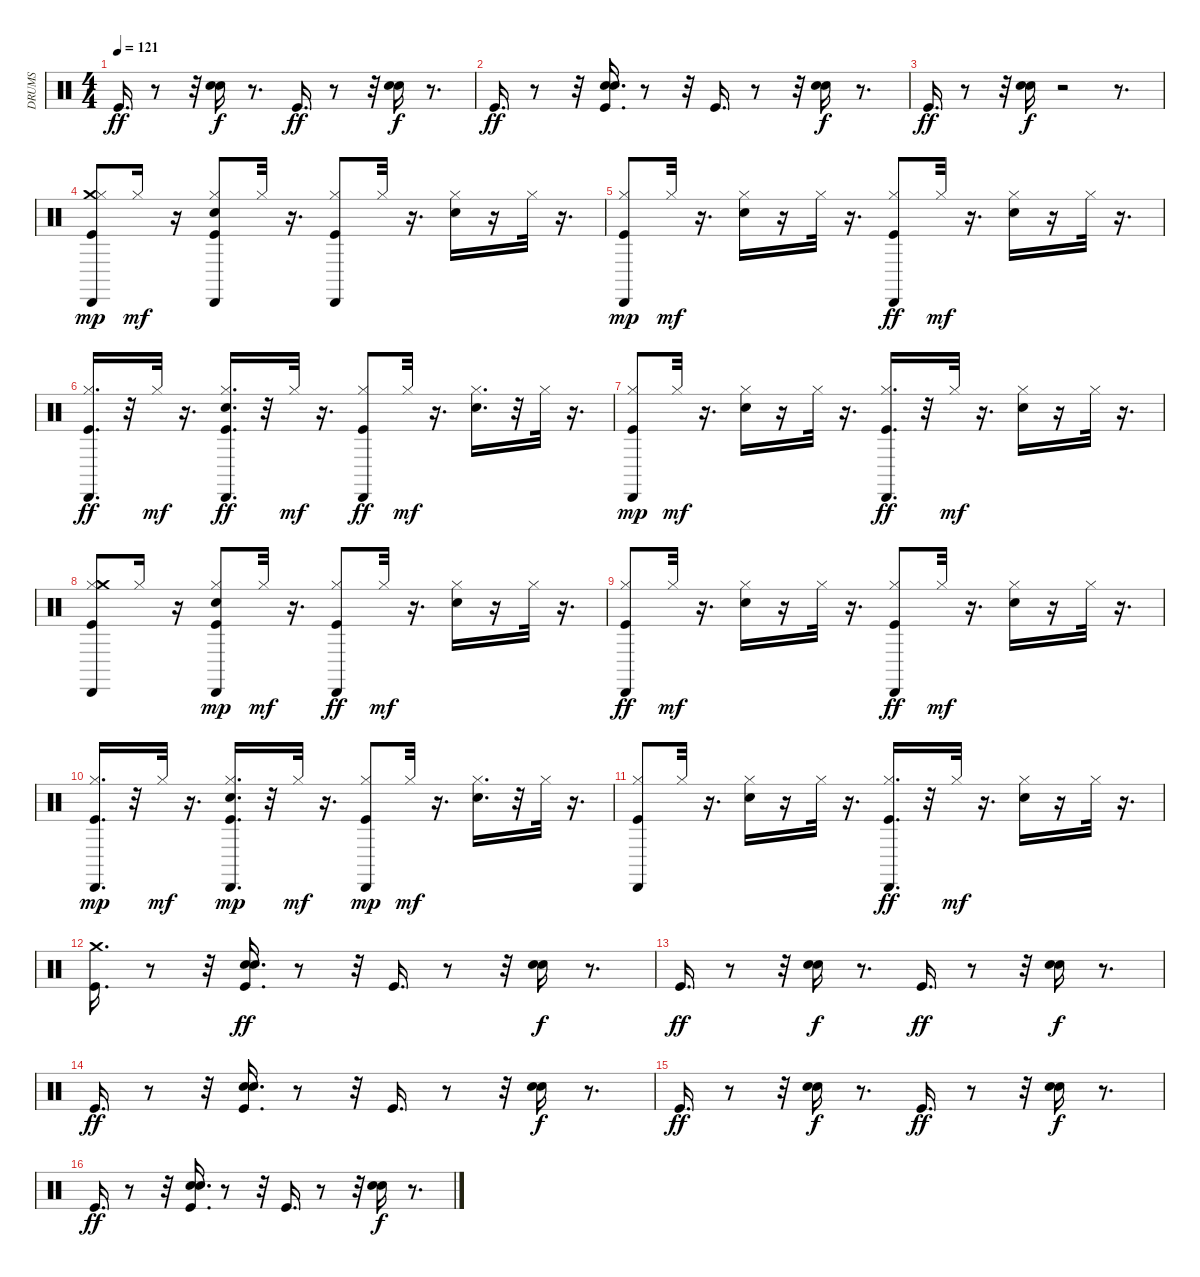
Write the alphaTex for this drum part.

\track ("DRUMS" "DRUMS") {instrument percussion}
\staff {score}
\articulation defaults
\ts (4 4)
\tempo 121
\clef neutral
\ks c "Kick (hit)".16{d dy ff}
r.8 r.32 ("Hand Clap (hit)" "Electric Snare (hit)").16{dy f} r.8{d} "Kick (hit)".16{d dy ff} r.8 r.32 ("Hand Clap (hit)" "Electric Snare (hit)").16{dy f} r.8{d} |
"Kick (hit)".16{d dy ff} r.8 r.32 ("Hand Clap (hit)" "Electric Snare (hit)" "Kick (hit)").16{d} r.8 r.32 "Kick (hit)".16{d} r.8 r.32 ("Electric Snare (hit)" "Hand Clap (hit)").16{dy f} r.8{d} |
"Kick (hit)".16{d dy ff} r.8 r.32 ("Electric Snare (hit)" "Hand Clap (hit)").16{dy f} r.2 r.8{d} |
("Kick (hit)" "Crash medium (hit)" "Hi-Hat (closed)" "Cabasa (hit)").8{dy mp} "Hi-Hat (closed)".16{dy mf} r.16 ("Kick (hit)" "Electric Snare (hit)" "Cabasa (hit)" "Hi-Hat (closed)").8 "Hi-Hat (closed)".32 r.16{d} ("Kick (hit)" "Cabasa (hit)" "Hi-Hat (closed)").8 "Hi-Hat (closed)".32 r.16{d} ("Hi-Hat (closed)" "Electric Snare (hit)").16 r.16 "Hi-Hat (closed)".32 r.16{d} |
("Kick (hit)" "Hi-Hat (closed)" "Cabasa (hit)").8{dy mp} "Hi-Hat (closed)".32{dy mf} r.16{d} ("Hi-Hat (closed)" "Electric Snare (hit)").16 r.16 "Hi-Hat (closed)".32 r.16{d} ("Hi-Hat (closed)" "Cabasa (hit)" "Kick (hit)").8{dy ff} "Hi-Hat (closed)".32{dy mf} r.16{d} ("Electric Snare (hit)" "Hi-Hat (closed)").16 r.16 "Hi-Hat (closed)".32 r.16{d} |
("Hi-Hat (closed)" "Cabasa (hit)" "Kick (hit)").16{d dy ff} r.32 "Hi-Hat (closed)".32{dy mf} r.16{d} ("Hi-Hat (closed)" "Electric Snare (hit)" "Cabasa (hit)" "Kick (hit)").16{d dy ff} r.32 "Hi-Hat (closed)".32{dy mf} r.16{d} ("Hi-Hat (closed)" "Cabasa (hit)" "Kick (hit)").8{dy ff} "Hi-Hat (closed)".32{dy mf} r.16{d} ("Electric Snare (hit)" "Hi-Hat (closed)").16{d} r.32 "Hi-Hat (closed)".32 r.16{d} |
("Hi-Hat (closed)" "Kick (hit)" "Cabasa (hit)").8{dy mp} "Hi-Hat (closed)".32{dy mf} r.16{d} ("Hi-Hat (closed)" "Electric Snare (hit)").16 r.16 "Hi-Hat (closed)".32 r.16{d} ("Hi-Hat (closed)" "Cabasa (hit)" "Kick (hit)").16{d dy ff} r.32 "Hi-Hat (closed)".32{dy mf} r.16{d} ("Electric Snare (hit)" "Hi-Hat (closed)").16 r.16 "Hi-Hat (closed)".32 r.16{d} |
("Kick (hit)" "Hi-Hat (closed)" "Cabasa (hit)" "Crash medium (hit)").8 "Hi-Hat (closed)".16 r.16 ("Hi-Hat (closed)" "Kick (hit)" "Cabasa (hit)" "Electric Snare (hit)").8{dy mp} "Hi-Hat (closed)".32{dy mf} r.16{d} ("Cabasa (hit)" "Hi-Hat (closed)" "Kick (hit)").8{dy ff} "Hi-Hat (closed)".32{dy mf} r.16{d} ("Hi-Hat (closed)" "Electric Snare (hit)").16 r.16 "Hi-Hat (closed)".32 r.16{d} |
("Hi-Hat (closed)" "Cabasa (hit)" "Kick (hit)").8{dy ff} "Hi-Hat (closed)".32{dy mf} r.16{d} ("Hi-Hat (closed)" "Electric Snare (hit)").16 r.16 "Hi-Hat (closed)".32 r.16{d} ("Cabasa (hit)" "Hi-Hat (closed)" "Kick (hit)").8{dy ff} "Hi-Hat (closed)".32{dy mf} r.16{d} ("Electric Snare (hit)" "Hi-Hat (closed)").16 r.16 "Hi-Hat (closed)".32 r.16{d} |
("Hi-Hat (closed)" "Kick (hit)" "Cabasa (hit)").16{d dy mp} r.32 "Hi-Hat (closed)".32{dy mf} r.16{d} ("Electric Snare (hit)" "Kick (hit)" "Hi-Hat (closed)" "Cabasa (hit)").16{d dy mp} r.32 "Hi-Hat (closed)".32{dy mf} r.16{d} ("Kick (hit)" "Hi-Hat (closed)" "Cabasa (hit)").8{dy mp} "Hi-Hat (closed)".32{dy mf} r.16{d} ("Hi-Hat (closed)" "Electric Snare (hit)").16{d} r.32 "Hi-Hat (closed)".32 r.16{d} |
("Cabasa (hit)" "Kick (hit)" "Hi-Hat (closed)").8 "Hi-Hat (closed)".32 r.16{d} ("Hi-Hat (closed)" "Electric Snare (hit)").16 r.16 "Hi-Hat (closed)".32 r.16{d} ("Hi-Hat (closed)" "Cabasa (hit)" "Kick (hit)").16{d dy ff} r.32 "Hi-Hat (closed)".32{dy mf} r.16{d} ("Hi-Hat (closed)" "Electric Snare (hit)").16 r.16 "Hi-Hat (closed)".32 r.16{d} |
("Kick (hit)" "Crash medium (hit)").16{d} r.8 r.32 ("Kick (hit)" "Electric Snare (hit)" "Hand Clap (hit)").16{d dy ff} r.8 r.32 "Kick (hit)".16{d} r.8 r.32 ("Hand Clap (hit)" "Electric Snare (hit)").16{dy f} r.8{d} |
"Kick (hit)".16{d dy ff} r.8 r.32 ("Hand Clap (hit)" "Electric Snare (hit)").16{dy f} r.8{d} "Kick (hit)".16{d dy ff} r.8 r.32 ("Electric Snare (hit)" "Hand Clap (hit)").16{dy f} r.8{d} |
"Kick (hit)".16{d dy ff} r.8 r.32 ("Electric Snare (hit)" "Hand Clap (hit)" "Kick (hit)").16{d} r.8 r.32 "Kick (hit)".16{d} r.8 r.32 ("Hand Clap (hit)" "Electric Snare (hit)").16{dy f} r.8{d} |
"Kick (hit)".16{d dy ff} r.8 r.32 ("Hand Clap (hit)" "Electric Snare (hit)").16{dy f} r.8{d} "Kick (hit)".16{d dy ff} r.8 r.32 ("Electric Snare (hit)" "Hand Clap (hit)").16{dy f} r.8{d} |
"Kick (hit)".16{d dy ff} r.8 r.32 ("Kick (hit)" "Electric Snare (hit)" "Hand Clap (hit)").16{d} r.8 r.32 "Kick (hit)".16{d} r.8 r.32 ("Electric Snare (hit)" "Hand Clap (hit)").16{dy f} r.8{d}
